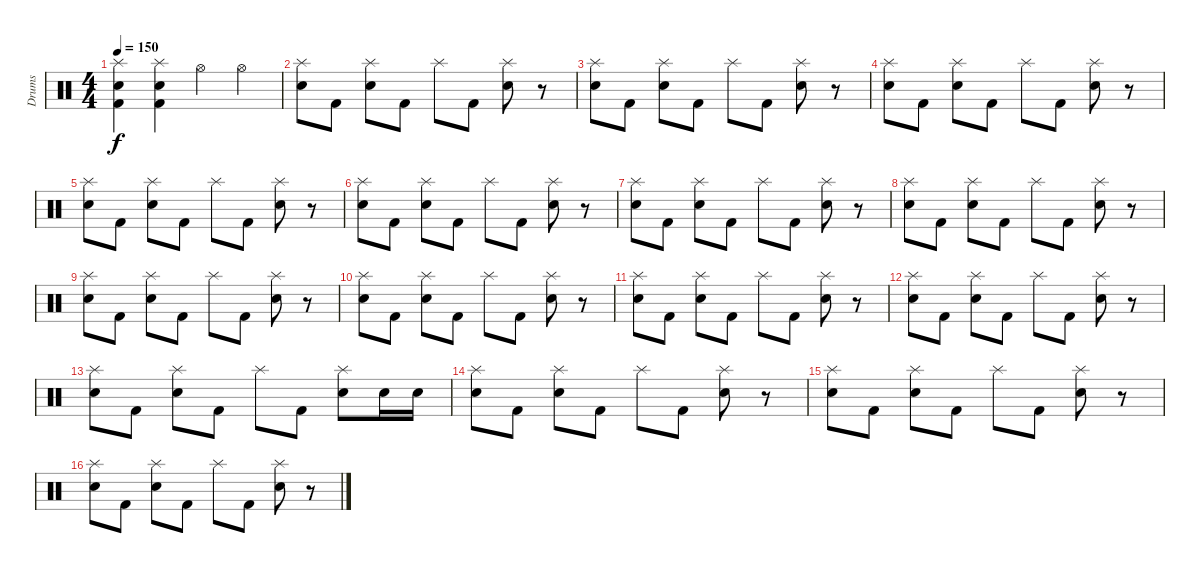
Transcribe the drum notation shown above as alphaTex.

\track ("Drums" "Drums") {instrument percussion}
\staff {score}
\articulation defaults
\ts (4 4)
\tempo 150
\clef neutral
\ks c
("Splash (hit)" "Snare (hit) 2" "Kick (hit) 2").4{dy f} ("Splash (hit)" "Snare (hit) 2" "Kick (hit) 2").4 "Hi-Hat (open)".4 "Hi-Hat (open)".4 |
("Splash (hit)" "Snare (hit) 2").8 "Kick (hit) 2".8 ("Splash (hit)" "Snare (hit) 2").8 "Kick (hit) 2".8 "Splash (hit)".8 "Kick (hit) 2".8 ("Splash (hit)" "Snare (hit) 2").8 r.8 |
("Splash (hit)" "Snare (hit) 2").8 "Kick (hit) 2".8 ("Splash (hit)" "Snare (hit) 2").8 "Kick (hit) 2".8 "Splash (hit)".8 "Kick (hit) 2".8 ("Splash (hit)" "Snare (hit) 2").8 r.8 |
("Splash (hit)" "Snare (hit) 2").8 "Kick (hit) 2".8 ("Splash (hit)" "Snare (hit) 2").8 "Kick (hit) 2".8 "Splash (hit)".8 "Kick (hit) 2".8 ("Splash (hit)" "Snare (hit) 2").8 r.8 |
("Splash (hit)" "Snare (hit) 2").8 "Kick (hit) 2".8 ("Splash (hit)" "Snare (hit) 2").8 "Kick (hit) 2".8 "Splash (hit)".8 "Kick (hit) 2".8 ("Splash (hit)" "Snare (hit) 2").8 r.8 |
("Splash (hit)" "Snare (hit) 2").8 "Kick (hit) 2".8 ("Splash (hit)" "Snare (hit) 2").8 "Kick (hit) 2".8 "Splash (hit)".8 "Kick (hit) 2".8 ("Splash (hit)" "Snare (hit) 2").8 r.8 |
("Splash (hit)" "Snare (hit) 2").8 "Kick (hit) 2".8 ("Splash (hit)" "Snare (hit) 2").8 "Kick (hit) 2".8 "Splash (hit)".8 "Kick (hit) 2".8 ("Splash (hit)" "Snare (hit) 2").8 r.8 |
("Splash (hit)" "Snare (hit) 2").8 "Kick (hit) 2".8 ("Splash (hit)" "Snare (hit) 2").8 "Kick (hit) 2".8 "Splash (hit)".8 "Kick (hit) 2".8 ("Splash (hit)" "Snare (hit) 2").8 r.8 |
("Splash (hit)" "Snare (hit) 2").8 "Kick (hit) 2".8 ("Splash (hit)" "Snare (hit) 2").8 "Kick (hit) 2".8 "Splash (hit)".8 "Kick (hit) 2".8 ("Splash (hit)" "Snare (hit) 2").8 r.8 |
("Splash (hit)" "Snare (hit) 2").8 "Kick (hit) 2".8 ("Splash (hit)" "Snare (hit) 2").8 "Kick (hit) 2".8 "Splash (hit)".8 "Kick (hit) 2".8 ("Splash (hit)" "Snare (hit) 2").8 r.8 |
("Splash (hit)" "Snare (hit) 2").8 "Kick (hit) 2".8 ("Splash (hit)" "Snare (hit) 2").8 "Kick (hit) 2".8 "Splash (hit)".8 "Kick (hit) 2".8 ("Splash (hit)" "Snare (hit) 2").8 r.8 |
("Splash (hit)" "Snare (hit) 2").8 "Kick (hit) 2".8 ("Splash (hit)" "Snare (hit) 2").8 "Kick (hit) 2".8 "Splash (hit)".8 "Kick (hit) 2".8 ("Splash (hit)" "Snare (hit) 2").8 r.8 |
("Splash (hit)" "Snare (hit) 2").8 "Kick (hit) 2".8 ("Splash (hit)" "Snare (hit) 2").8 "Kick (hit) 2".8 "Splash (hit)".8 "Kick (hit) 2".8 ("Splash (hit)" "Snare (hit) 2").8 "Snare (hit) 2".16 "Snare (hit) 2".16 |
("Splash (hit)" "Snare (hit) 2").8 "Kick (hit) 2".8 ("Splash (hit)" "Snare (hit) 2").8 "Kick (hit) 2".8 "Splash (hit)".8 "Kick (hit) 2".8 ("Splash (hit)" "Snare (hit) 2").8 r.8 |
("Splash (hit)" "Snare (hit) 2").8 "Kick (hit) 2".8 ("Splash (hit)" "Snare (hit) 2").8 "Kick (hit) 2".8 "Splash (hit)".8 "Kick (hit) 2".8 ("Splash (hit)" "Snare (hit) 2").8 r.8 |
("Splash (hit)" "Snare (hit) 2").8 "Kick (hit) 2".8 ("Splash (hit)" "Snare (hit) 2").8 "Kick (hit) 2".8 "Splash (hit)".8 "Kick (hit) 2".8 ("Splash (hit)" "Snare (hit) 2").8 r.8
